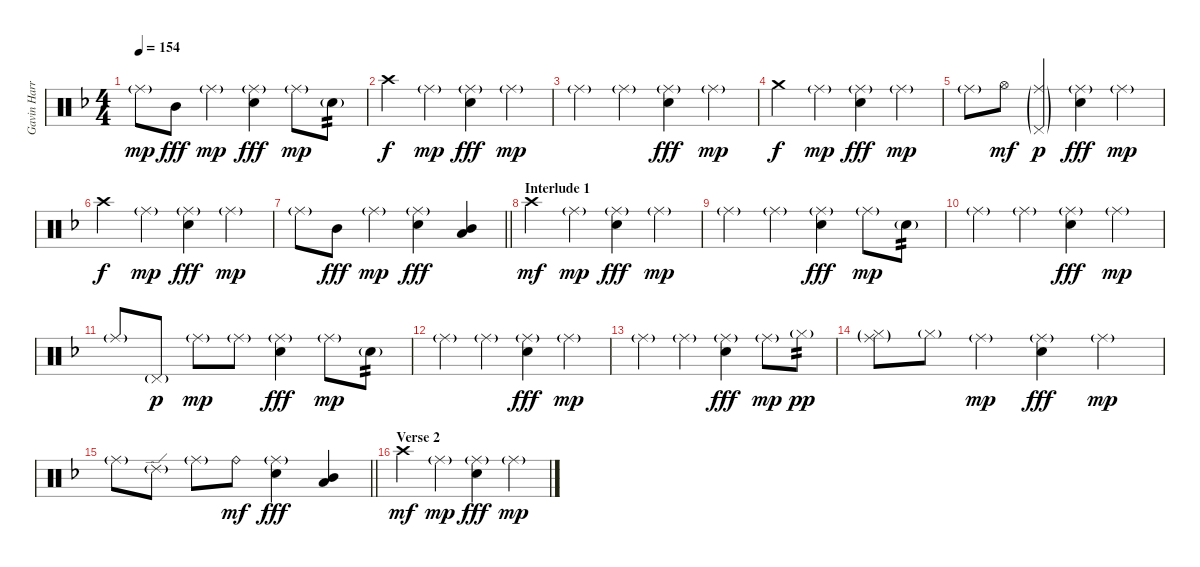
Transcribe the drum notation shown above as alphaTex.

\track ("Gavin Harrison Drums" "Gavin Harr") {instrument percussion}
\staff {score}
\articulation defaults
\ts (4 4)
\tempo 154
\clef neutral
\ks dminor "Ride (middle)"{g}.8{dy mp} "Mid Tom (hit)".8{dy fff} "Ride (middle)"{g}.4{dy mp}
("Ride (middle)"{g} "Electric Snare (hit)").4{dy fff} "Ride (middle)"{g}.8{dy mp} "Electric Snare (hit)"{g}.8{tp 2} |
"Crash high (hit)".4{dy f} "Ride (middle)"{g}.4{dy mp} ("Ride (middle)"{g} "Electric Snare (hit)").4{dy fff} "Ride (middle)"{g}.4{dy mp} |
"Ride (middle)"{g}.4 "Ride (middle)"{g}.4 ("Ride (middle)"{g} "Electric Snare (hit)").4{dy fff} "Ride (middle)"{g}.4{dy mp} |
"Crash medium (hit)".4{dy f} "Ride (middle)"{g}.4{dy mp} ("Ride (middle)"{g} "Electric Snare (hit)").4{dy fff} "Ride (middle)"{g}.4{dy mp} |
"Ride (middle)"{g}.8 "Hi-Hat (open)".8{dy mf} ("Ride (middle)"{g} "Pedal Hi-Hat (hit)"{g}).4{dy p} ("Ride (middle)"{g} "Electric Snare (hit)").4{dy fff} "Ride (middle)"{g}.4{dy mp} |
"Crash high (hit)".4{dy f} "Ride (middle)"{g}.4{dy mp} ("Ride (middle)"{g} "Electric Snare (hit)").4{dy fff} "Ride (middle)"{g}.4{dy mp} |
\barLineRight lightlight "Ride (middle)"{g}.8 "Mid Tom (hit)".8{dy fff} "Ride (middle)"{g}.4{dy mp}
("Ride (middle)"{g} "Electric Snare (hit)").4{dy fff} ("Mid Tom (hit)" "Low Tom (hit)").4 |
\section ("" "Interlude 1")
"Crash high (hit)".4{dy mf} "Ride (middle)"{g}.4{dy mp} ("Ride (middle)"{g} "Electric Snare (hit)").4{dy fff} "Ride (middle)"{g}.4{dy mp} |
"Ride (middle)"{g}.4 "Ride (middle)"{g}.4 ("Ride (middle)"{g} "Electric Snare (hit)").4{dy fff} "Ride (middle)"{g}.8{dy mp} "Electric Snare (hit)"{g}.8{tp 2} |
"Ride (middle)"{g}.4 "Ride (middle)"{g}.4 ("Ride (middle)"{g} "Electric Snare (hit)").4{dy fff} "Ride (middle)"{g}.4{dy mp} |
"Ride (middle)"{g}.8 "Pedal Hi-Hat (hit)"{g}.8{dy p} "Ride (middle)"{g}.8{dy mp} "Ride (middle)"{g}.8 ("Ride (middle)"{g} "Electric Snare (hit)").4{dy fff} "Ride (middle)"{g}.8{dy mp} "Electric Snare (hit)"{g}.8{tp 2} |
"Ride (middle)"{g}.4 "Ride (middle)"{g}.4 ("Ride (middle)"{g} "Electric Snare (hit)").4{dy fff} "Ride (middle)"{g}.4{dy mp} |
"Ride (middle)"{g}.4 "Ride (middle)"{g}.4 ("Ride (middle)"{g} "Electric Snare (hit)").4{dy fff} "Ride (middle)"{g}.8{dy mp} "Hi-Hat (closed)"{g}.8{tp 2 dy pp} |
("Ride (middle)"{g} "Hi-Hat (closed)"{g}).8 "Hi-Hat (closed)"{g}.8 "Ride (middle)"{g}.4{dy mp} ("Ride (middle)"{g} "Electric Snare (hit)").4{dy fff} "Ride (middle)"{g}.4{dy mp} |
\barLineRight lightlight "Ride (middle)"{g}.8 "Ride (edge) 2"{g}.8 "Ride (middle)"{g}.8 "Ride (bell)".8{dy mf}
("Ride (middle)"{g} "Electric Snare (hit)").4{dy fff} ("Mid Tom (hit)" "Low Tom (hit)").4 |
\section ("" "Verse 2")
"Crash high (hit)".4{dy mf} "Ride (middle)"{g}.4{dy mp} ("Ride (middle)"{g} "Electric Snare (hit)").4{dy fff} "Ride (middle)"{g}.4{dy mp}
